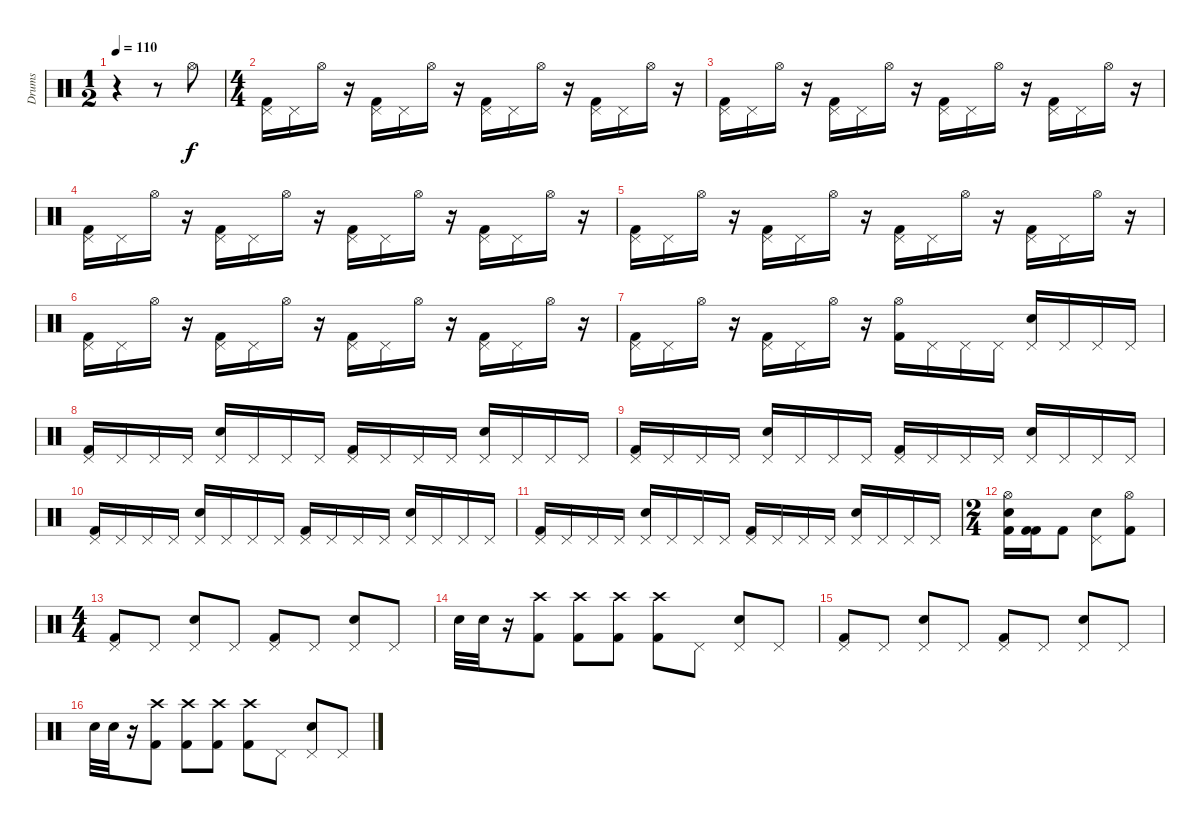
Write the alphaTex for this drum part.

\track ("Drums" "Drums") {instrument percussion}
\staff {score}
\articulation defaults
\ts (1 2)
\tempo 110
\clef neutral
\ks c
r.4{dy f} r.8 "Hi-Hat (open)".8 |
\ts (4 4)
("Kick (hit) 2" "Pedal Hi-Hat (hit)").16 "Pedal Hi-Hat (hit)".16 "Hi-Hat (open)".16 r.16 ("Kick (hit) 2" "Pedal Hi-Hat (hit)").16 "Pedal Hi-Hat (hit)".16 "Hi-Hat (open)".16 r.16 ("Kick (hit) 2" "Pedal Hi-Hat (hit)").16 "Pedal Hi-Hat (hit)".16 "Hi-Hat (open)".16 r.16 ("Kick (hit) 2" "Pedal Hi-Hat (hit)").16 "Pedal Hi-Hat (hit)".16 "Hi-Hat (open)".16 r.16 |
("Kick (hit) 2" "Pedal Hi-Hat (hit)").16 "Pedal Hi-Hat (hit)".16 "Hi-Hat (open)".16 r.16 ("Kick (hit) 2" "Pedal Hi-Hat (hit)").16 "Pedal Hi-Hat (hit)".16 "Hi-Hat (open)".16 r.16 ("Kick (hit) 2" "Pedal Hi-Hat (hit)").16 "Pedal Hi-Hat (hit)".16 "Hi-Hat (open)".16 r.16 ("Kick (hit) 2" "Pedal Hi-Hat (hit)").16 "Pedal Hi-Hat (hit)".16 "Hi-Hat (open)".16 r.16 |
("Kick (hit) 2" "Pedal Hi-Hat (hit)").16 "Pedal Hi-Hat (hit)".16 "Hi-Hat (open)".16 r.16 ("Kick (hit) 2" "Pedal Hi-Hat (hit)").16 "Pedal Hi-Hat (hit)".16 "Hi-Hat (open)".16 r.16 ("Kick (hit) 2" "Pedal Hi-Hat (hit)").16 "Pedal Hi-Hat (hit)".16 "Hi-Hat (open)".16 r.16 ("Kick (hit) 2" "Pedal Hi-Hat (hit)").16 "Pedal Hi-Hat (hit)".16 "Hi-Hat (open)".16 r.16 |
("Kick (hit) 2" "Pedal Hi-Hat (hit)").16 "Pedal Hi-Hat (hit)".16 "Hi-Hat (open)".16 r.16 ("Kick (hit) 2" "Pedal Hi-Hat (hit)").16 "Pedal Hi-Hat (hit)".16 "Hi-Hat (open)".16 r.16 ("Kick (hit) 2" "Pedal Hi-Hat (hit)").16 "Pedal Hi-Hat (hit)".16 "Hi-Hat (open)".16 r.16 ("Kick (hit) 2" "Pedal Hi-Hat (hit)").16 "Pedal Hi-Hat (hit)".16 "Hi-Hat (open)".16 r.16 |
("Kick (hit) 2" "Pedal Hi-Hat (hit)").16 "Pedal Hi-Hat (hit)".16 "Hi-Hat (open)".16 r.16 ("Kick (hit) 2" "Pedal Hi-Hat (hit)").16 "Pedal Hi-Hat (hit)".16 "Hi-Hat (open)".16 r.16 ("Kick (hit) 2" "Pedal Hi-Hat (hit)").16 "Pedal Hi-Hat (hit)".16 "Hi-Hat (open)".16 r.16 ("Kick (hit) 2" "Pedal Hi-Hat (hit)").16 "Pedal Hi-Hat (hit)".16 "Hi-Hat (open)".16 r.16 |
("Kick (hit) 2" "Pedal Hi-Hat (hit)").16 "Pedal Hi-Hat (hit)".16 "Hi-Hat (open)".16 r.16 ("Kick (hit) 2" "Pedal Hi-Hat (hit)").16 "Pedal Hi-Hat (hit)".16 "Hi-Hat (open)".16 r.16 ("Kick (hit) 2" "Hi-Hat (open)").16 "Pedal Hi-Hat (hit)".16 "Pedal Hi-Hat (hit)".16 "Pedal Hi-Hat (hit)".16 ("Electric Snare (hit)" "Pedal Hi-Hat (hit)").16 "Pedal Hi-Hat (hit)".16 "Pedal Hi-Hat (hit)".16 "Pedal Hi-Hat (hit)".16 |
("Kick (hit) 2" "Pedal Hi-Hat (hit)").16 "Pedal Hi-Hat (hit)".16 "Pedal Hi-Hat (hit)".16 "Pedal Hi-Hat (hit)".16 ("Electric Snare (hit)" "Pedal Hi-Hat (hit)").16 "Pedal Hi-Hat (hit)".16 "Pedal Hi-Hat (hit)".16 "Pedal Hi-Hat (hit)".16 ("Kick (hit) 2" "Pedal Hi-Hat (hit)").16 "Pedal Hi-Hat (hit)".16 "Pedal Hi-Hat (hit)".16 "Pedal Hi-Hat (hit)".16 ("Electric Snare (hit)" "Pedal Hi-Hat (hit)").16 "Pedal Hi-Hat (hit)".16 "Pedal Hi-Hat (hit)".16 "Pedal Hi-Hat (hit)".16 |
("Kick (hit) 2" "Pedal Hi-Hat (hit)").16 "Pedal Hi-Hat (hit)".16 "Pedal Hi-Hat (hit)".16 "Pedal Hi-Hat (hit)".16 ("Electric Snare (hit)" "Pedal Hi-Hat (hit)").16 "Pedal Hi-Hat (hit)".16 "Pedal Hi-Hat (hit)".16 "Pedal Hi-Hat (hit)".16 ("Kick (hit) 2" "Pedal Hi-Hat (hit)").16 "Pedal Hi-Hat (hit)".16 "Pedal Hi-Hat (hit)".16 "Pedal Hi-Hat (hit)".16 ("Electric Snare (hit)" "Pedal Hi-Hat (hit)").16 "Pedal Hi-Hat (hit)".16 "Pedal Hi-Hat (hit)".16 "Pedal Hi-Hat (hit)".16 |
("Kick (hit) 2" "Pedal Hi-Hat (hit)").16 "Pedal Hi-Hat (hit)".16 "Pedal Hi-Hat (hit)".16 "Pedal Hi-Hat (hit)".16 ("Electric Snare (hit)" "Pedal Hi-Hat (hit)").16 "Pedal Hi-Hat (hit)".16 "Pedal Hi-Hat (hit)".16 "Pedal Hi-Hat (hit)".16 ("Kick (hit) 2" "Pedal Hi-Hat (hit)").16 "Pedal Hi-Hat (hit)".16 "Pedal Hi-Hat (hit)".16 "Pedal Hi-Hat (hit)".16 ("Electric Snare (hit)" "Pedal Hi-Hat (hit)").16 "Pedal Hi-Hat (hit)".16 "Pedal Hi-Hat (hit)".16 "Pedal Hi-Hat (hit)".16 |
("Kick (hit) 2" "Pedal Hi-Hat (hit)").16 "Pedal Hi-Hat (hit)".16 "Pedal Hi-Hat (hit)".16 "Pedal Hi-Hat (hit)".16 ("Electric Snare (hit)" "Pedal Hi-Hat (hit)").16 "Pedal Hi-Hat (hit)".16 "Pedal Hi-Hat (hit)".16 "Pedal Hi-Hat (hit)".16 ("Kick (hit) 2" "Pedal Hi-Hat (hit)").16 "Pedal Hi-Hat (hit)".16 "Pedal Hi-Hat (hit)".16 "Pedal Hi-Hat (hit)".16 ("Electric Snare (hit)" "Pedal Hi-Hat (hit)").16 "Pedal Hi-Hat (hit)".16 "Pedal Hi-Hat (hit)".16 "Pedal Hi-Hat (hit)".16 |
\ts (2 4)
("Snare (hit) 2" "Hi-Hat (open)" "Kick (hit) 2").16 ("Kick (hit) 2" "Kick (hit) 2").16 "Kick (hit) 2".8 ("Pedal Hi-Hat (hit)" "Electric Snare (hit)").8 ("Hi-Hat (open)" "Kick (hit) 2").8 |
\ts (4 4)
("Pedal Hi-Hat (hit)" "Kick (hit) 2").8 "Pedal Hi-Hat (hit)".8 ("Pedal Hi-Hat (hit)" "Electric Snare (hit)").8 "Pedal Hi-Hat (hit)".8 ("Pedal Hi-Hat (hit)" "Kick (hit) 2").8 "Pedal Hi-Hat (hit)".8 ("Pedal Hi-Hat (hit)" "Electric Snare (hit)").8 "Pedal Hi-Hat (hit)".8 |
"Electric Snare (hit)".32 "Electric Snare (hit)".32 r.16 ("Crash high (hit)" "Kick (hit) 2").8 ("Crash high (hit)" "Kick (hit) 2").8 ("Crash high (hit)" "Kick (hit) 2").8 ("Crash high (hit)" "Kick (hit) 2").8 "Pedal Hi-Hat (hit)".8 ("Pedal Hi-Hat (hit)" "Electric Snare (hit)").8 "Pedal Hi-Hat (hit)".8 |
("Pedal Hi-Hat (hit)" "Kick (hit) 2").8 "Pedal Hi-Hat (hit)".8 ("Pedal Hi-Hat (hit)" "Electric Snare (hit)").8 "Pedal Hi-Hat (hit)".8 ("Pedal Hi-Hat (hit)" "Kick (hit) 2").8 "Pedal Hi-Hat (hit)".8 ("Pedal Hi-Hat (hit)" "Electric Snare (hit)").8 "Pedal Hi-Hat (hit)".8 |
"Electric Snare (hit)".32 "Electric Snare (hit)".32 r.16 ("Crash high (hit)" "Kick (hit) 2").8 ("Crash high (hit)" "Kick (hit) 2").8 ("Crash high (hit)" "Kick (hit) 2").8 ("Crash high (hit)" "Kick (hit) 2").8 "Pedal Hi-Hat (hit)".8 ("Pedal Hi-Hat (hit)" "Electric Snare (hit)").8 "Pedal Hi-Hat (hit)".8
